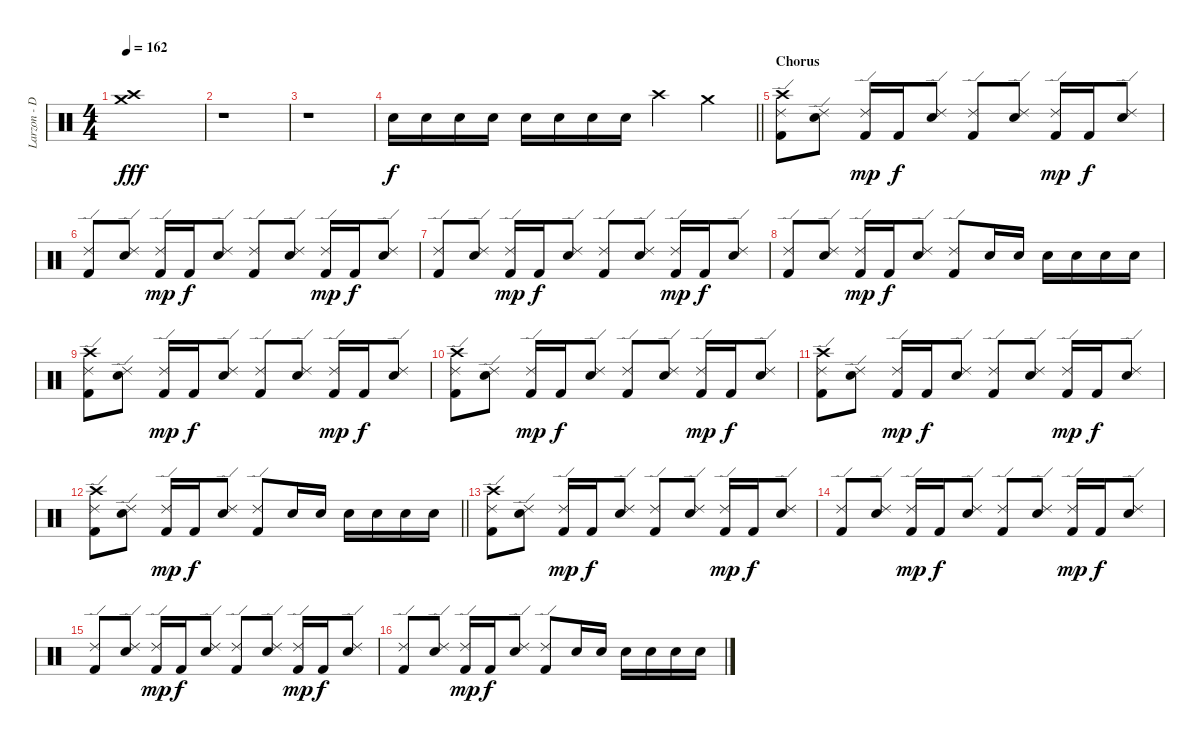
\track ("Larzon - Drums" "Larzon - D") {instrument percussion}
\staff {score}
\articulation defaults
\ts (4 4)
\tempo 162
\clef neutral
\ks c
("Crash high (hit)" "Crash medium (hit)").1{dy fff} |
r.1 |
r.1 |
\barLineRight lightlight "Snare (hit) 2".16{dy f} "Snare (hit) 2".16 "Snare (hit) 2".16 "Snare (hit) 2".16 "Snare (hit) 2".16 "Snare (hit) 2".16 "Snare (hit) 2".16 "Snare (hit) 2".16 "Crash high (hit)".4 "Crash medium (hit)".4
|
\section ("" "Chorus")
("Kick (hit) 2" "Ride (edge) 2" "Crash high (hit)").8 ("Snare (hit) 2" "Ride (edge) 2").8 ("Kick (hit) 2" "Ride (edge) 2").16{dy mp} "Kick (hit) 2".16{dy f} ("Snare (hit) 2" "Ride (edge) 2").8 ("Kick (hit) 2" "Ride (edge) 2").8 ("Snare (hit) 2" "Ride (edge) 2").8 ("Kick (hit) 2" "Ride (edge) 2").16{dy mp} "Kick (hit) 2".16{dy f} ("Snare (hit) 2" "Ride (edge) 2").8 |
("Kick (hit) 2" "Ride (edge) 2").8 ("Snare (hit) 2" "Ride (edge) 2").8 ("Kick (hit) 2" "Ride (edge) 2").16{dy mp} "Kick (hit) 2".16{dy f} ("Snare (hit) 2" "Ride (edge) 2").8 ("Kick (hit) 2" "Ride (edge) 2").8 ("Snare (hit) 2" "Ride (edge) 2").8 ("Kick (hit) 2" "Ride (edge) 2").16{dy mp} "Kick (hit) 2".16{dy f} ("Snare (hit) 2" "Ride (edge) 2").8 |
("Kick (hit) 2" "Ride (edge) 2").8 ("Snare (hit) 2" "Ride (edge) 2").8 ("Kick (hit) 2" "Ride (edge) 2").16{dy mp} "Kick (hit) 2".16{dy f} ("Snare (hit) 2" "Ride (edge) 2").8 ("Kick (hit) 2" "Ride (edge) 2").8 ("Snare (hit) 2" "Ride (edge) 2").8 ("Kick (hit) 2" "Ride (edge) 2").16{dy mp} "Kick (hit) 2".16{dy f} ("Snare (hit) 2" "Ride (edge) 2").8 |
("Kick (hit) 2" "Ride (edge) 2").8 ("Snare (hit) 2" "Ride (edge) 2").8 ("Kick (hit) 2" "Ride (edge) 2").16{dy mp} "Kick (hit) 2".16{dy f} ("Snare (hit) 2" "Ride (edge) 2").8 ("Kick (hit) 2" "Ride (edge) 2").8 "Snare (hit) 2".16 "Snare (hit) 2".16 "Snare (hit) 2".16 "Snare (hit) 2".16 "Snare (hit) 2".16 "Snare (hit) 2".16 |
("Kick (hit) 2" "Ride (edge) 2" "Crash high (hit)").8 ("Snare (hit) 2" "Ride (edge) 2").8 ("Kick (hit) 2" "Ride (edge) 2").16{dy mp} "Kick (hit) 2".16{dy f} ("Snare (hit) 2" "Ride (edge) 2").8 ("Kick (hit) 2" "Ride (edge) 2").8 ("Snare (hit) 2" "Ride (edge) 2").8 ("Kick (hit) 2" "Ride (edge) 2").16{dy mp} "Kick (hit) 2".16{dy f} ("Snare (hit) 2" "Ride (edge) 2").8 |
("Kick (hit) 2" "Ride (edge) 2" "Crash high (hit)").8 ("Snare (hit) 2" "Ride (edge) 2").8 ("Kick (hit) 2" "Ride (edge) 2").16{dy mp} "Kick (hit) 2".16{dy f} ("Snare (hit) 2" "Ride (edge) 2").8 ("Kick (hit) 2" "Ride (edge) 2").8 ("Snare (hit) 2" "Ride (edge) 2").8 ("Kick (hit) 2" "Ride (edge) 2").16{dy mp} "Kick (hit) 2".16{dy f} ("Snare (hit) 2" "Ride (edge) 2").8 |
("Kick (hit) 2" "Ride (edge) 2" "Crash high (hit)").8 ("Snare (hit) 2" "Ride (edge) 2").8 ("Kick (hit) 2" "Ride (edge) 2").16{dy mp} "Kick (hit) 2".16{dy f} ("Snare (hit) 2" "Ride (edge) 2").8 ("Kick (hit) 2" "Ride (edge) 2").8 ("Snare (hit) 2" "Ride (edge) 2").8 ("Kick (hit) 2" "Ride (edge) 2").16{dy mp} "Kick (hit) 2".16{dy f} ("Snare (hit) 2" "Ride (edge) 2").8 |
\barLineRight lightlight
("Kick (hit) 2" "Ride (edge) 2" "Crash high (hit)").8 ("Snare (hit) 2" "Ride (edge) 2").8 ("Kick (hit) 2" "Ride (edge) 2").16{dy mp} "Kick (hit) 2".16{dy f} ("Snare (hit) 2" "Ride (edge) 2").8 ("Kick (hit) 2" "Ride (edge) 2").8 "Snare (hit) 2".16 "Snare (hit) 2".16 "Snare (hit) 2".16 "Snare (hit) 2".16 "Snare (hit) 2".16 "Snare (hit) 2".16 |
("Kick (hit) 2" "Ride (edge) 2" "Crash high (hit)").8 ("Snare (hit) 2" "Ride (edge) 2").8 ("Kick (hit) 2" "Ride (edge) 2").16{dy mp} "Kick (hit) 2".16{dy f} ("Snare (hit) 2" "Ride (edge) 2").8 ("Kick (hit) 2" "Ride (edge) 2").8 ("Snare (hit) 2" "Ride (edge) 2").8 ("Kick (hit) 2" "Ride (edge) 2").16{dy mp} "Kick (hit) 2".16{dy f} ("Snare (hit) 2" "Ride (edge) 2").8 |
("Kick (hit) 2" "Ride (edge) 2").8 ("Snare (hit) 2" "Ride (edge) 2").8 ("Kick (hit) 2" "Ride (edge) 2").16{dy mp} "Kick (hit) 2".16{dy f} ("Snare (hit) 2" "Ride (edge) 2").8 ("Kick (hit) 2" "Ride (edge) 2").8 ("Snare (hit) 2" "Ride (edge) 2").8 ("Kick (hit) 2" "Ride (edge) 2").16{dy mp} "Kick (hit) 2".16{dy f} ("Snare (hit) 2" "Ride (edge) 2").8 |
("Kick (hit) 2" "Ride (edge) 2").8 ("Snare (hit) 2" "Ride (edge) 2").8 ("Kick (hit) 2" "Ride (edge) 2").16{dy mp} "Kick (hit) 2".16{dy f} ("Snare (hit) 2" "Ride (edge) 2").8 ("Kick (hit) 2" "Ride (edge) 2").8 ("Snare (hit) 2" "Ride (edge) 2").8 ("Kick (hit) 2" "Ride (edge) 2").16{dy mp} "Kick (hit) 2".16{dy f} ("Snare (hit) 2" "Ride (edge) 2").8 |
("Kick (hit) 2" "Ride (edge) 2").8 ("Snare (hit) 2" "Ride (edge) 2").8 ("Kick (hit) 2" "Ride (edge) 2").16{dy mp} "Kick (hit) 2".16{dy f} ("Snare (hit) 2" "Ride (edge) 2").8 ("Kick (hit) 2" "Ride (edge) 2").8 "Snare (hit) 2".16 "Snare (hit) 2".16 "Snare (hit) 2".16 "Snare (hit) 2".16 "Snare (hit) 2".16 "Snare (hit) 2".16
